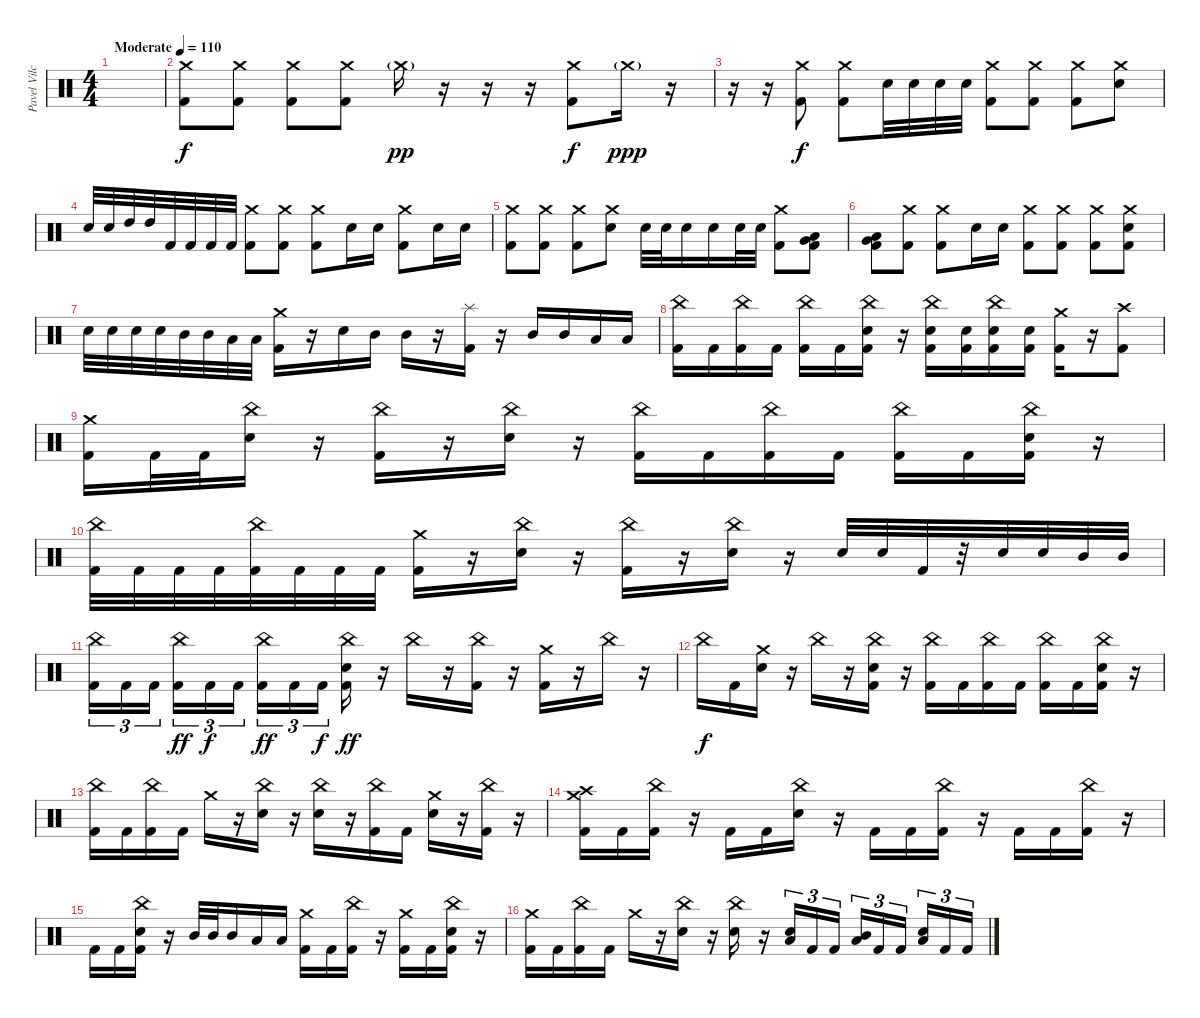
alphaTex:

\track ("Pavel Vilchytski" "Pavel Vilc") {instrument percussion}
\staff {score}
\articulation defaults
\ts (4 4)
\tempo (110 "Moderate")
\clef neutral
\ks c
|
("Crash medium (hit)" "Kick (hit) 2").8 ("Crash medium (hit)" "Kick (hit) 2").8 ("Crash medium (hit)" "Kick (hit) 2").8 ("Crash medium (hit)" "Kick (hit) 2").8 "Crash medium (hit)"{g}.16{dy pp} r.16 r.16 r.16 ("Crash medium (hit)" "Kick (hit) 2").8{dy f} "Crash medium (hit)"{g}.16{dy ppp} r.16 |
r.16 r.16 ("Crash medium (hit)" "Kick (hit) 2").8{dy f} ("Crash medium (hit)" "Kick (hit) 2").8 "Electric Snare (hit)".32 "Electric Snare (hit)".32 "Electric Snare (hit)".32 "Electric Snare (hit)".32 ("Crash medium (hit)" "Kick (hit) 2").8 ("Crash medium (hit)" "Kick (hit) 2").8 ("Crash medium (hit)" "Kick (hit) 2").8 ("Crash medium (hit)" "Electric Snare (hit)").8 |
"Electric Snare (hit)".32 "Electric Snare (hit)".32 "High Tom (hit)".32 "High Tom (hit)".32 "Kick (hit) 2".32 "Kick (hit) 2".32 "Kick (hit) 2".32 "Kick (hit) 2".32 ("Crash medium (hit)" "Kick (hit) 2").8 ("Crash medium (hit)" "Kick (hit) 2").8 ("Crash medium (hit)" "Kick (hit) 2").8 "Electric Snare (hit)".16 "Electric Snare (hit)".16 ("Crash medium (hit)" "Kick (hit) 2").8 "Electric Snare (hit)".16 "Electric Snare (hit)".16 |
("Crash medium (hit)" "Kick (hit) 2").8 ("Crash medium (hit)" "Kick (hit) 2").8 ("Crash medium (hit)" "Kick (hit) 2").8 ("Crash medium (hit)" "Electric Snare (hit)").8 "Electric Snare (hit)".32 "Electric Snare (hit)".32 "Electric Snare (hit)".16 "Electric Snare (hit)".16 "Electric Snare (hit)".32 "Electric Snare (hit)".32 ("Crash medium (hit)" "Kick (hit) 2").8 ("Very Low Tom (hit)" "Low Tom (hit)" "Kick (hit) 2").8 |
("Very Low Tom (hit)" "Low Tom (hit)" "Kick (hit) 2").8 ("Crash medium (hit)" "Kick (hit) 2").8 ("Crash medium (hit)" "Kick (hit) 2").8 "Electric Snare (hit)".16 "Electric Snare (hit)".16 ("Crash medium (hit)" "Kick (hit) 2").8 ("Crash medium (hit)" "Kick (hit) 2").8 ("Crash medium (hit)" "Kick (hit) 2").8 ("Crash medium (hit)" "Electric Snare (hit)" "Kick (hit) 2").8 |
"Electric Snare (hit)".32 "Electric Snare (hit)".32 "Electric Snare (hit)".32 "Electric Snare (hit)".32 "Mid Tom (hit)".32 "Mid Tom (hit)".32 "Low Tom (hit)".32 "Low Tom (hit)".32 ("Crash medium (hit)" "Kick (hit) 2").16 r.16 "Electric Snare (hit)".16 "Mid Tom (hit)".16 "Mid Tom (hit)".16 r.16 ("Splash (hit)" "Kick (hit) 2").16 r.16 "Mid Tom (hit)".16 "Mid Tom (hit)".16 "Low Tom (hit)".16 "Low Tom (hit)".16 |
("China (hit)" "Kick (hit) 2").16 "Kick (hit) 2".16 ("China (hit)" "Kick (hit) 2").16 "Kick (hit) 2".16 ("China (hit)" "Kick (hit) 2").16 "Kick (hit) 2".16 ("China (hit)" "Electric Snare (hit)" "Kick (hit) 2").16 r.16 ("China (hit)" "Electric Snare (hit)" "Kick (hit) 2").16 ("Electric Snare (hit)" "Kick (hit) 2").16 ("China (hit)" "Electric Snare (hit)" "Kick (hit) 2").16 ("Electric Snare (hit)" "Kick (hit) 2").16 ("Crash medium (hit)" "Kick (hit) 2").16 r.16 ("Crash high (hit)" "Kick (hit) 2").8 |
("Crash medium (hit)" "Kick (hit) 2").16 "Kick (hit) 2".32 "Kick (hit) 2".32 ("China (hit)" "Electric Snare (hit)").16 r.16 ("China (hit)" "Kick (hit) 2").16 r.16 ("China (hit)" "Electric Snare (hit)").16 r.16 ("China (hit)" "Kick (hit) 2").16 "Kick (hit) 2".16 ("China (hit)" "Kick (hit) 2").16 "Kick (hit) 2".16 ("China (hit)" "Kick (hit) 2").16 "Kick (hit) 2".16 ("China (hit)" "Electric Snare (hit)" "Kick (hit) 2").16 r.16 |
("China (hit)" "Kick (hit) 2").32 "Kick (hit) 2".32 "Kick (hit) 2".32 "Kick (hit) 2".32 ("China (hit)" "Kick (hit) 2").32 "Kick (hit) 2".32 "Kick (hit) 2".32 "Kick (hit) 2".32 ("Crash medium (hit)" "Kick (hit) 2").16 r.16 ("China (hit)" "Electric Snare (hit)").16 r.16 ("China (hit)" "Kick (hit) 2").16 r.16 ("China (hit)" "Electric Snare (hit)").16 r.16 "Electric Snare (hit)".32 "Electric Snare (hit)".32 "Kick (hit) 2".32 r.32 "Electric Snare (hit)".32 "Electric Snare (hit)".32 "Mid Tom (hit)".32 "Mid Tom (hit)".32 |
("China (hit)" "Kick (hit) 2").16{tu (3 2)} "Kick (hit) 2".16{tu (3 2)} "Kick (hit) 2".16{tu (3 2) beam splitsecondary} ("China (hit)" "Kick (hit) 2").16{tu (3 2) dy ff} "Kick (hit) 2".16{tu (3 2) dy f} "Kick (hit) 2".16{tu (3 2)} ("China (hit)" "Kick (hit) 2").16{tu (3 2) dy ff} "Kick (hit) 2".16{tu (3 2)} "Kick (hit) 2".16{tu (3 2) dy f beam splitsecondary} ("China (hit)" "Electric Snare (hit)" "Kick (hit) 2").16{dy ff} r.16 "China (hit)".16 r.16 ("China (hit)" "Kick (hit) 2").16 r.16 ("Crash medium (hit)" "Kick (hit) 2").16 r.16 "China (hit)".16 r.16 |
"China (hit)".16{dy f} "Kick (hit) 2".16 ("Crash medium (hit)" "Electric Snare (hit)").16 r.16 "China (hit)".16 r.16 ("China (hit)" "Electric Snare (hit)" "Kick (hit) 2").16 r.16 ("China (hit)" "Kick (hit) 2").16 "Kick (hit) 2".16 ("China (hit)" "Kick (hit) 2").16 "Kick (hit) 2".16 ("China (hit)" "Kick (hit) 2").16 "Kick (hit) 2".16 ("China (hit)" "Electric Snare (hit)" "Kick (hit) 2").16 r.16 |
("China (hit)" "Kick (hit) 2").16 "Kick (hit) 2".16 ("China (hit)" "Kick (hit) 2").16 "Kick (hit) 2".16 "Crash medium (hit)".16 r.16 ("China (hit)" "Electric Snare (hit)").16 r.16 ("China (hit)" "Electric Snare (hit)").16 r.16 ("China (hit)" "Kick (hit) 2").16 "Kick (hit) 2".16 ("Crash medium (hit)" "Electric Snare (hit)").16 r.16 ("China (hit)" "Kick (hit) 2").16 r.16 |
("Crash medium (hit)" "Crash high (hit)" "Kick (hit) 2").16 "Kick (hit) 2".16 ("China (hit)" "Kick (hit) 2").16 r.16 "Kick (hit) 2".16 "Kick (hit) 2".16 ("China (hit)" "Electric Snare (hit)").16 r.16 "Kick (hit) 2".16 "Kick (hit) 2".16 ("China (hit)" "Kick (hit) 2").16 r.16 "Kick (hit) 2".16 "Kick (hit) 2".16 ("China (hit)" "Kick (hit) 2").16 r.16 |
"Kick (hit) 2".16 "Kick (hit) 2".16 ("China (hit)" "Electric Snare (hit)" "Kick (hit) 2").16 r.16 "Mid Tom (hit)".32 "Mid Tom (hit)".32 "Mid Tom (hit)".16 "Low Tom (hit)".16 "Low Tom (hit)".16 ("Crash medium (hit)" "Kick (hit) 2").16 "Kick (hit) 2".16 ("China (hit)" "Kick (hit) 2").16 r.16 ("Crash medium (hit)" "Kick (hit) 2").16 "Kick (hit) 2".16 ("China (hit)" "Electric Snare (hit)" "Kick (hit) 2").16 r.16 |
("Crash medium (hit)" "Kick (hit) 2").16 "Kick (hit) 2".16 ("China (hit)" "Kick (hit) 2").16 "Kick (hit) 2".16 "Crash medium (hit)".16 r.16 ("China (hit)" "Electric Snare (hit)").16 r.16 ("China (hit)" "Electric Snare (hit)").16 r.16 ("Low Tom (hit)" "Electric Snare (hit)").16{tu (3 2)} "Kick (hit) 2".16{tu (3 2)} "Kick (hit) 2".16{tu (3 2)} ("Low Tom (hit)" "Mid Tom (hit)").16{tu (3 2)} "Kick (hit) 2".16{tu (3 2)} "Kick (hit) 2".16{tu (3 2) beam splitsecondary} ("Low Tom (hit)" "Electric Snare (hit)").16{tu (3 2)} "Kick (hit) 2".16{tu (3 2)} "Kick (hit) 2".16{tu (3 2)}
